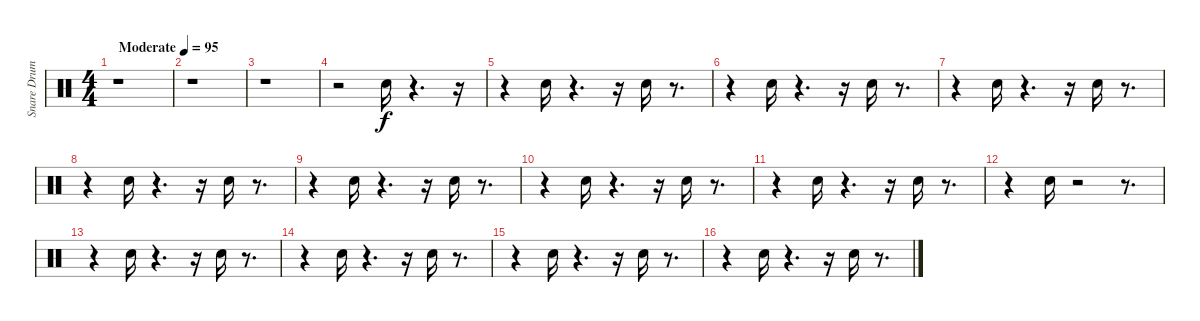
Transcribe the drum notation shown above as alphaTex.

\track ("Snare Drum" "Snare Drum") {instrument percussion}
\staff {score}
\articulation defaults
\ts (4 4)
\tempo (95 "Moderate")
\clef neutral
\ks c
r.1{dy f} |
r.1 |
r.1 |
r.2 "Snare (hit) 2".16 r.4{d} r.16 |
r.4 "Snare (hit) 2".16 r.4{d} r.16 "Snare (hit) 2".16 r.8{d} |
r.4 "Snare (hit) 2".16 r.4{d} r.16 "Snare (hit) 2".16 r.8{d} |
r.4 "Snare (hit) 2".16 r.4{d} r.16 "Snare (hit) 2".16 r.8{d} |
r.4 "Snare (hit) 2".16 r.4{d} r.16 "Snare (hit) 2".16 r.8{d} |
r.4 "Snare (hit) 2".16 r.4{d} r.16 "Snare (hit) 2".16 r.8{d} |
r.4 "Snare (hit) 2".16 r.4{d} r.16 "Snare (hit) 2".16 r.8{d} |
r.4 "Snare (hit) 2".16 r.4{d} r.16 "Snare (hit) 2".16 r.8{d} |
r.4 "Snare (hit) 2".16 r.2 r.8{d} |
r.4 "Snare (hit) 2".16 r.4{d} r.16 "Snare (hit) 2".16 r.8{d} |
r.4 "Snare (hit) 2".16 r.4{d} r.16 "Snare (hit) 2".16 r.8{d} |
r.4 "Snare (hit) 2".16 r.4{d} r.16 "Snare (hit) 2".16 r.8{d} |
r.4 "Snare (hit) 2".16 r.4{d} r.16 "Snare (hit) 2".16 r.8{d}
